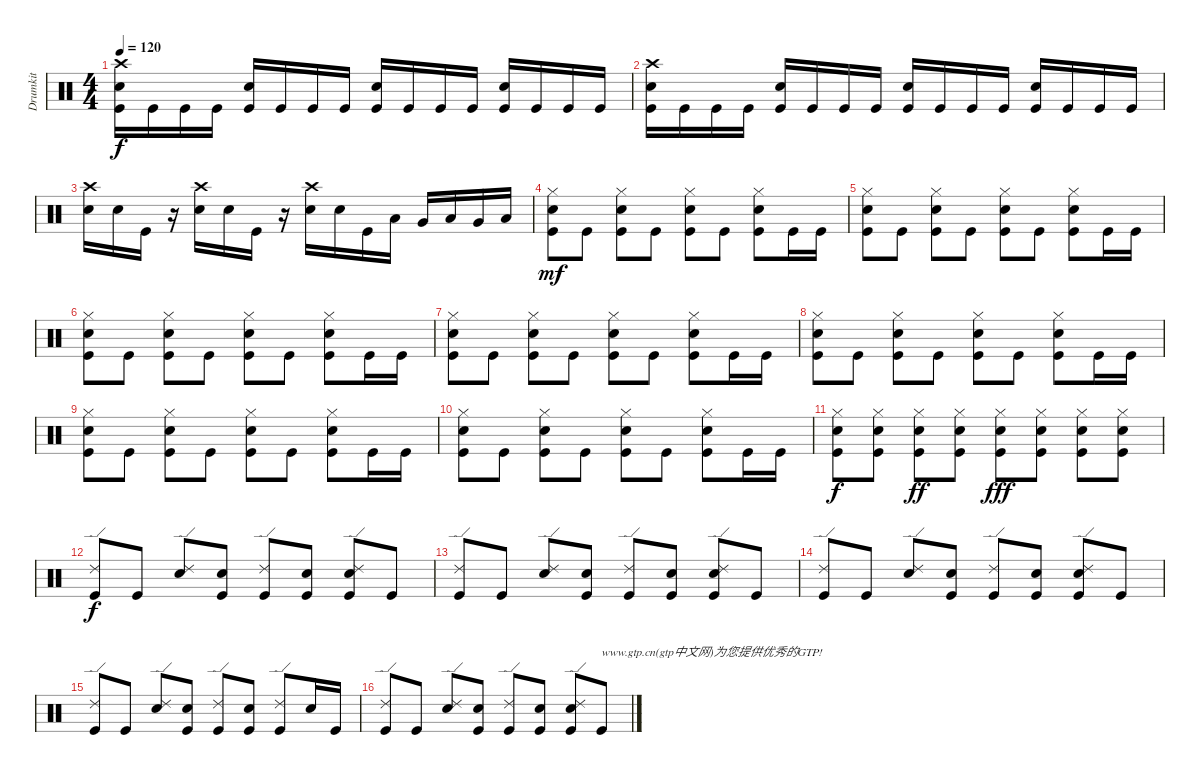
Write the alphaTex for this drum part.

\track ("Drumkit" "Drumkit") {instrument percussion}
\staff {score}
\articulation defaults
\ts (4 4)
\tempo 120
\clef neutral
\ks c
("Kick (hit)" "Snare (hit) 2" "Crash high (hit)").16{dy f} "Kick (hit)".16 "Kick (hit)".16 "Kick (hit)".16 ("Kick (hit)" "Snare (hit) 2").16 "Kick (hit)".16 "Kick (hit)".16 "Kick (hit)".16 ("Kick (hit)" "Snare (hit) 2").16 "Kick (hit)".16 "Kick (hit)".16 "Kick (hit)".16 ("Kick (hit)" "Snare (hit) 2").16 "Kick (hit)".16 "Kick (hit)".16 "Kick (hit)".16 |
("Kick (hit)" "Snare (hit) 2" "Crash high (hit)").16 "Kick (hit)".16 "Kick (hit)".16 "Kick (hit)".16 ("Kick (hit)" "Snare (hit) 2").16 "Kick (hit)".16 "Kick (hit)".16 "Kick (hit)".16 ("Kick (hit)" "Snare (hit) 2").16 "Kick (hit)".16 "Kick (hit)".16 "Kick (hit)".16 ("Kick (hit)" "Snare (hit) 2").16 "Kick (hit)".16 "Kick (hit)".16 "Kick (hit)".16 |
("Snare (hit) 2" "Crash high (hit)").16 "Snare (hit) 2".16 "Kick (hit)".16 r.16 ("Snare (hit) 2" "Crash high (hit)").16 "Snare (hit) 2".16 "Kick (hit)".16 r.16 ("Snare (hit) 2" "Crash high (hit)").16 "Snare (hit) 2".16 "Kick (hit)".16 "Low Tom (hit)".16 "Very Low Tom (hit)".16 "Low Floor Tom (hit)".16 "Very Low Tom (hit)".16 "Low Tom (hit)".16 |
("Kick (hit)" "Snare (hit) 2" "Hi-Hat (closed)").8{dy mf} "Kick (hit)".8 ("Kick (hit)" "Snare (hit) 2" "Hi-Hat (closed)").8 "Kick (hit)".8 ("Kick (hit)" "Snare (hit) 2" "Hi-Hat (closed)").8 "Kick (hit)".8 ("Kick (hit)" "Snare (hit) 2" "Hi-Hat (closed)").8 "Kick (hit)".16 "Kick (hit)".16 |
("Kick (hit)" "Snare (hit) 2" "Hi-Hat (closed)").8 "Kick (hit)".8 ("Kick (hit)" "Snare (hit) 2" "Hi-Hat (closed)").8 "Kick (hit)".8 ("Kick (hit)" "Snare (hit) 2" "Hi-Hat (closed)").8 "Kick (hit)".8 ("Kick (hit)" "Snare (hit) 2" "Hi-Hat (closed)").8 "Kick (hit)".16 "Kick (hit)".16 |
("Kick (hit)" "Snare (hit) 2" "Hi-Hat (closed)").8 "Kick (hit)".8 ("Kick (hit)" "Snare (hit) 2" "Hi-Hat (closed)").8 "Kick (hit)".8 ("Kick (hit)" "Snare (hit) 2" "Hi-Hat (closed)").8 "Kick (hit)".8 ("Kick (hit)" "Snare (hit) 2" "Hi-Hat (closed)").8 "Kick (hit)".16 "Kick (hit)".16 |
("Kick (hit)" "Snare (hit) 2" "Hi-Hat (closed)").8 "Kick (hit)".8 ("Kick (hit)" "Snare (hit) 2" "Hi-Hat (closed)").8 "Kick (hit)".8 ("Kick (hit)" "Snare (hit) 2" "Hi-Hat (closed)").8 "Kick (hit)".8 ("Kick (hit)" "Snare (hit) 2" "Hi-Hat (closed)").8 "Kick (hit)".16 "Kick (hit)".16 |
("Kick (hit)" "Snare (hit) 2" "Hi-Hat (closed)").8 "Kick (hit)".8 ("Kick (hit)" "Snare (hit) 2" "Hi-Hat (closed)").8 "Kick (hit)".8 ("Kick (hit)" "Snare (hit) 2" "Hi-Hat (closed)").8 "Kick (hit)".8 ("Kick (hit)" "Snare (hit) 2" "Hi-Hat (closed)").8 "Kick (hit)".16 "Kick (hit)".16 |
("Kick (hit)" "Snare (hit) 2" "Hi-Hat (closed)").8 "Kick (hit)".8 ("Kick (hit)" "Snare (hit) 2" "Hi-Hat (closed)").8 "Kick (hit)".8 ("Kick (hit)" "Snare (hit) 2" "Hi-Hat (closed)").8 "Kick (hit)".8 ("Kick (hit)" "Snare (hit) 2" "Hi-Hat (closed)").8 "Kick (hit)".16 "Kick (hit)".16 |
("Kick (hit)" "Snare (hit) 2" "Hi-Hat (closed)").8 "Kick (hit)".8 ("Kick (hit)" "Snare (hit) 2" "Hi-Hat (closed)").8 "Kick (hit)".8 ("Kick (hit)" "Snare (hit) 2" "Hi-Hat (closed)").8 "Kick (hit)".8 ("Kick (hit)" "Snare (hit) 2" "Hi-Hat (closed)").8 "Kick (hit)".16 "Kick (hit)".16 |
("Kick (hit)" "Snare (hit) 2" "Hi-Hat (closed)").8{dy f} ("Kick (hit)" "Snare (hit) 2" "Hi-Hat (closed)").8 ("Kick (hit)" "Snare (hit) 2" "Hi-Hat (closed)").8{dy ff} ("Kick (hit)" "Snare (hit) 2" "Hi-Hat (closed)").8 ("Kick (hit)" "Snare (hit) 2" "Hi-Hat (closed)").8{dy fff} ("Kick (hit)" "Snare (hit) 2" "Hi-Hat (closed)").8 ("Kick (hit)" "Snare (hit) 2" "Hi-Hat (closed)").8 ("Kick (hit)" "Snare (hit) 2" "Hi-Hat (closed)").8 |
("Kick (hit)" "Ride (edge) 2").8{dy f} "Kick (hit)".8 ("Snare (hit) 2" "Ride (edge) 2").8 ("Kick (hit)" "Snare (hit) 2").8 ("Kick (hit)" "Ride (edge) 2").8 ("Kick (hit)" "Snare (hit) 2").8 ("Snare (hit) 2" "Ride (edge) 2" "Kick (hit)").8 "Kick (hit)".8 |
("Kick (hit)" "Ride (edge) 2").8 "Kick (hit)".8 ("Snare (hit) 2" "Ride (edge) 2").8 ("Kick (hit)" "Snare (hit) 2").8 ("Kick (hit)" "Ride (edge) 2").8 ("Kick (hit)" "Snare (hit) 2").8 ("Snare (hit) 2" "Ride (edge) 2" "Kick (hit)").8 "Kick (hit)".8 |
("Kick (hit)" "Ride (edge) 2").8 "Kick (hit)".8 ("Snare (hit) 2" "Ride (edge) 2").8 ("Kick (hit)" "Snare (hit) 2").8 ("Kick (hit)" "Ride (edge) 2").8 ("Kick (hit)" "Snare (hit) 2").8 ("Snare (hit) 2" "Ride (edge) 2" "Kick (hit)").8 "Kick (hit)".8 |
("Kick (hit)" "Ride (edge) 2").8 "Kick (hit)".8 ("Snare (hit) 2" "Ride (edge) 2").8 ("Kick (hit)" "Snare (hit) 2").8 ("Kick (hit)" "Ride (edge) 2").8 ("Kick (hit)" "Snare (hit) 2").8 ("Ride (edge) 2" "Kick (hit)").8 "Snare (hit) 2".16 "Kick (hit)".16 |
("Kick (hit)" "Ride (edge) 2").8 "Kick (hit)".8 ("Snare (hit) 2" "Ride (edge) 2").8 ("Kick (hit)" "Snare (hit) 2").8 ("Kick (hit)" "Ride (edge) 2").8 ("Kick (hit)" "Snare (hit) 2").8 ("Snare (hit) 2" "Ride (edge) 2" "Kick (hit)").8 "Kick (hit)".8{txt "www.gtp.cn(gtp中文网)为您提供优秀的GTP!"}
